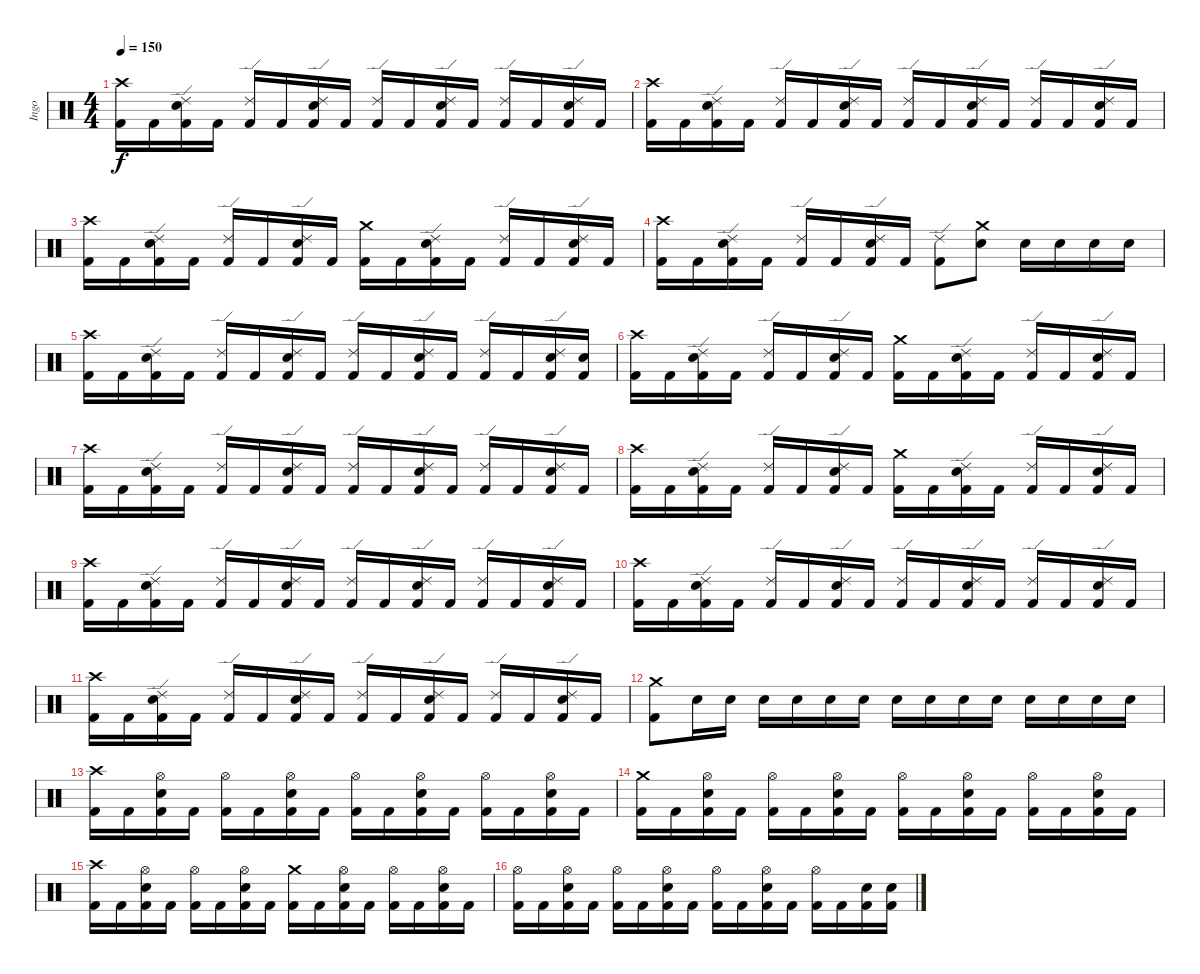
\track ("Ingo" "Ingo") {instrument percussion}
\staff {score}
\articulation defaults
\ts (4 4)
\tempo 150
\clef neutral
\ks c
("Crash high (hit)" "Kick (hit) 2").16{dy f} "Kick (hit) 2".16 ("Ride (edge) 2" "Electric Snare (hit)" "Kick (hit) 2").16 "Kick (hit) 2".16 ("Ride (edge) 2" "Kick (hit) 2").16 "Kick (hit) 2".16 ("Ride (edge) 2" "Electric Snare (hit)" "Kick (hit) 2").16 "Kick (hit) 2".16 ("Ride (edge) 2" "Kick (hit) 2").16 "Kick (hit) 2".16 ("Ride (edge) 2" "Electric Snare (hit)" "Kick (hit) 2").16 "Kick (hit) 2".16 ("Ride (edge) 2" "Kick (hit) 2").16 "Kick (hit) 2".16 ("Ride (edge) 2" "Electric Snare (hit)" "Kick (hit) 2").16 "Kick (hit) 2".16 |
("Crash high (hit)" "Kick (hit) 2").16 "Kick (hit) 2".16 ("Ride (edge) 2" "Electric Snare (hit)" "Kick (hit) 2").16 "Kick (hit) 2".16 ("Ride (edge) 2" "Kick (hit) 2").16 "Kick (hit) 2".16 ("Ride (edge) 2" "Electric Snare (hit)" "Kick (hit) 2").16 "Kick (hit) 2".16 ("Ride (edge) 2" "Kick (hit) 2").16 "Kick (hit) 2".16 ("Ride (edge) 2" "Electric Snare (hit)" "Kick (hit) 2").16 "Kick (hit) 2".16 ("Ride (edge) 2" "Kick (hit) 2").16 "Kick (hit) 2".16 ("Ride (edge) 2" "Electric Snare (hit)" "Kick (hit) 2").16 "Kick (hit) 2".16 |
("Crash high (hit)" "Kick (hit) 2").16 "Kick (hit) 2".16 ("Ride (edge) 2" "Electric Snare (hit)" "Kick (hit) 2").16 "Kick (hit) 2".16 ("Ride (edge) 2" "Kick (hit) 2").16 "Kick (hit) 2".16 ("Ride (edge) 2" "Electric Snare (hit)" "Kick (hit) 2").16 "Kick (hit) 2".16 ("Crash medium (hit)" "Kick (hit) 2").16 "Kick (hit) 2".16 ("Ride (edge) 2" "Electric Snare (hit)" "Kick (hit) 2").16 "Kick (hit) 2".16 ("Ride (edge) 2" "Kick (hit) 2").16 "Kick (hit) 2".16 ("Ride (edge) 2" "Electric Snare (hit)" "Kick (hit) 2").16 "Kick (hit) 2".16 |
("Crash high (hit)" "Kick (hit) 2").16 "Kick (hit) 2".16 ("Ride (edge) 2" "Electric Snare (hit)" "Kick (hit) 2").16 "Kick (hit) 2".16 ("Ride (edge) 2" "Kick (hit) 2").16 "Kick (hit) 2".16 ("Ride (edge) 2" "Electric Snare (hit)" "Kick (hit) 2").16 "Kick (hit) 2".16 ("Ride (edge) 2" "Kick (hit) 2").8 ("Crash medium (hit)" "Electric Snare (hit)").8 "Electric Snare (hit)".16 "Electric Snare (hit)".16 "Electric Snare (hit)".16 "Electric Snare (hit)".16 |
("Crash high (hit)" "Kick (hit) 2").16 "Kick (hit) 2".16 ("Ride (edge) 2" "Electric Snare (hit)" "Kick (hit) 2").16 "Kick (hit) 2".16 ("Ride (edge) 2" "Kick (hit) 2").16 "Kick (hit) 2".16 ("Ride (edge) 2" "Electric Snare (hit)" "Kick (hit) 2").16 "Kick (hit) 2".16 ("Ride (edge) 2" "Kick (hit) 2").16 "Kick (hit) 2".16 ("Ride (edge) 2" "Electric Snare (hit)" "Kick (hit) 2").16 "Kick (hit) 2".16 ("Ride (edge) 2" "Kick (hit) 2").16 "Kick (hit) 2".16 ("Ride (edge) 2" "Electric Snare (hit)" "Kick (hit) 2").16 ("Electric Snare (hit)" "Kick (hit) 2").16 |
("Crash high (hit)" "Kick (hit) 2").16 "Kick (hit) 2".16 ("Ride (edge) 2" "Electric Snare (hit)" "Kick (hit) 2").16 "Kick (hit) 2".16 ("Ride (edge) 2" "Kick (hit) 2").16 "Kick (hit) 2".16 ("Ride (edge) 2" "Electric Snare (hit)" "Kick (hit) 2").16 "Kick (hit) 2".16 ("Crash medium (hit)" "Kick (hit) 2").16 "Kick (hit) 2".16 ("Ride (edge) 2" "Electric Snare (hit)" "Kick (hit) 2").16 "Kick (hit) 2".16 ("Ride (edge) 2" "Kick (hit) 2").16 "Kick (hit) 2".16 ("Ride (edge) 2" "Electric Snare (hit)" "Kick (hit) 2").16 "Kick (hit) 2".16 |
("Crash high (hit)" "Kick (hit) 2").16 "Kick (hit) 2".16 ("Ride (edge) 2" "Electric Snare (hit)" "Kick (hit) 2").16 "Kick (hit) 2".16 ("Ride (edge) 2" "Kick (hit) 2").16 "Kick (hit) 2".16 ("Ride (edge) 2" "Electric Snare (hit)" "Kick (hit) 2").16 "Kick (hit) 2".16 ("Ride (edge) 2" "Kick (hit) 2").16 "Kick (hit) 2".16 ("Ride (edge) 2" "Electric Snare (hit)" "Kick (hit) 2").16 "Kick (hit) 2".16 ("Ride (edge) 2" "Kick (hit) 2").16 "Kick (hit) 2".16 ("Ride (edge) 2" "Electric Snare (hit)" "Kick (hit) 2").16 "Kick (hit) 2".16 |
("Crash high (hit)" "Kick (hit) 2").16 "Kick (hit) 2".16 ("Ride (edge) 2" "Electric Snare (hit)" "Kick (hit) 2").16 "Kick (hit) 2".16 ("Ride (edge) 2" "Kick (hit) 2").16 "Kick (hit) 2".16 ("Ride (edge) 2" "Electric Snare (hit)" "Kick (hit) 2").16 "Kick (hit) 2".16 ("Crash medium (hit)" "Kick (hit) 2").16 "Kick (hit) 2".16 ("Ride (edge) 2" "Electric Snare (hit)" "Kick (hit) 2").16 "Kick (hit) 2".16 ("Ride (edge) 2" "Kick (hit) 2").16 "Kick (hit) 2".16 ("Ride (edge) 2" "Electric Snare (hit)" "Kick (hit) 2").16 "Kick (hit) 2".16 |
("Crash high (hit)" "Kick (hit) 2").16 "Kick (hit) 2".16 ("Ride (edge) 2" "Electric Snare (hit)" "Kick (hit) 2").16 "Kick (hit) 2".16 ("Ride (edge) 2" "Kick (hit) 2").16 "Kick (hit) 2".16 ("Ride (edge) 2" "Electric Snare (hit)" "Kick (hit) 2").16 "Kick (hit) 2".16 ("Ride (edge) 2" "Kick (hit) 2").16 "Kick (hit) 2".16 ("Ride (edge) 2" "Electric Snare (hit)" "Kick (hit) 2").16 "Kick (hit) 2".16 ("Ride (edge) 2" "Kick (hit) 2").16 "Kick (hit) 2".16 ("Ride (edge) 2" "Electric Snare (hit)" "Kick (hit) 2").16 "Kick (hit) 2".16 |
("Crash high (hit)" "Kick (hit) 2").16 "Kick (hit) 2".16 ("Ride (edge) 2" "Electric Snare (hit)" "Kick (hit) 2").16 "Kick (hit) 2".16 ("Ride (edge) 2" "Kick (hit) 2").16 "Kick (hit) 2".16 ("Ride (edge) 2" "Electric Snare (hit)" "Kick (hit) 2").16 "Kick (hit) 2".16 ("Ride (edge) 2" "Kick (hit) 2").16 "Kick (hit) 2".16 ("Ride (edge) 2" "Electric Snare (hit)" "Kick (hit) 2").16 "Kick (hit) 2".16 ("Ride (edge) 2" "Kick (hit) 2").16 "Kick (hit) 2".16 ("Ride (edge) 2" "Electric Snare (hit)" "Kick (hit) 2").16 "Kick (hit) 2".16 |
("Crash high (hit)" "Kick (hit) 2").16 "Kick (hit) 2".16 ("Ride (edge) 2" "Electric Snare (hit)" "Kick (hit) 2").16 "Kick (hit) 2".16 ("Ride (edge) 2" "Kick (hit) 2").16 "Kick (hit) 2".16 ("Ride (edge) 2" "Electric Snare (hit)" "Kick (hit) 2").16 "Kick (hit) 2".16 ("Ride (edge) 2" "Kick (hit) 2").16 "Kick (hit) 2".16 ("Ride (edge) 2" "Electric Snare (hit)" "Kick (hit) 2").16 "Kick (hit) 2".16 ("Ride (edge) 2" "Kick (hit) 2").16 "Kick (hit) 2".16 ("Ride (edge) 2" "Electric Snare (hit)" "Kick (hit) 2").16 "Kick (hit) 2".16 |
("Crash medium (hit)" "Kick (hit) 2").8 "Electric Snare (hit)".16 "Electric Snare (hit)".16 "Electric Snare (hit)".16 "Electric Snare (hit)".16 "Electric Snare (hit)".16 "Electric Snare (hit)".16 "Electric Snare (hit)".16 "Electric Snare (hit)".16 "Electric Snare (hit)".16 "Electric Snare (hit)".16 "Electric Snare (hit)".16 "Electric Snare (hit)".16 "Electric Snare (hit)".16 "Electric Snare (hit)".16 |
("Crash high (hit)" "Kick (hit) 2").16 "Kick (hit) 2".16 ("Hi-Hat (open)" "Electric Snare (hit)" "Kick (hit) 2").16 "Kick (hit) 2".16 ("Hi-Hat (open)" "Kick (hit) 2").16 "Kick (hit) 2".16 ("Hi-Hat (open)" "Electric Snare (hit)" "Kick (hit) 2").16 "Kick (hit) 2".16 ("Hi-Hat (open)" "Kick (hit) 2").16 "Kick (hit) 2".16 ("Hi-Hat (open)" "Electric Snare (hit)" "Kick (hit) 2").16 "Kick (hit) 2".16 ("Hi-Hat (open)" "Kick (hit) 2").16 "Kick (hit) 2".16 ("Hi-Hat (open)" "Electric Snare (hit)" "Kick (hit) 2").16 "Kick (hit) 2".16 |
("Crash medium (hit)" "Kick (hit) 2").16 "Kick (hit) 2".16 ("Hi-Hat (open)" "Electric Snare (hit)" "Kick (hit) 2").16 "Kick (hit) 2".16 ("Hi-Hat (open)" "Kick (hit) 2").16 "Kick (hit) 2".16 ("Hi-Hat (open)" "Electric Snare (hit)" "Kick (hit) 2").16 "Kick (hit) 2".16 ("Hi-Hat (open)" "Kick (hit) 2").16 "Kick (hit) 2".16 ("Hi-Hat (open)" "Electric Snare (hit)" "Kick (hit) 2").16 "Kick (hit) 2".16 ("Hi-Hat (open)" "Kick (hit) 2").16 "Kick (hit) 2".16 ("Hi-Hat (open)" "Electric Snare (hit)" "Kick (hit) 2").16 "Kick (hit) 2".16 |
("Crash high (hit)" "Kick (hit) 2").16 "Kick (hit) 2".16 ("Hi-Hat (open)" "Electric Snare (hit)" "Kick (hit) 2").16 "Kick (hit) 2".16 ("Hi-Hat (open)" "Kick (hit) 2").16 "Kick (hit) 2".16 ("Hi-Hat (open)" "Electric Snare (hit)" "Kick (hit) 2").16 "Kick (hit) 2".16 ("Crash medium (hit)" "Kick (hit) 2").16 "Kick (hit) 2".16 ("Hi-Hat (open)" "Electric Snare (hit)" "Kick (hit) 2").16 "Kick (hit) 2".16 ("Hi-Hat (open)" "Kick (hit) 2").16 "Kick (hit) 2".16 ("Hi-Hat (open)" "Electric Snare (hit)" "Kick (hit) 2").16 "Kick (hit) 2".16 |
("Hi-Hat (open)" "Kick (hit) 2").16 "Kick (hit) 2".16 ("Hi-Hat (open)" "Electric Snare (hit)" "Kick (hit) 2").16 "Kick (hit) 2".16 ("Hi-Hat (open)" "Kick (hit) 2").16 "Kick (hit) 2".16 ("Hi-Hat (open)" "Electric Snare (hit)" "Kick (hit) 2").16 "Kick (hit) 2".16 ("Hi-Hat (open)" "Kick (hit) 2").16 "Kick (hit) 2".16 ("Hi-Hat (open)" "Electric Snare (hit)" "Kick (hit) 2").16 "Kick (hit) 2".16 ("Hi-Hat (open)" "Kick (hit) 2").16 "Kick (hit) 2".16 ("Electric Snare (hit)" "Kick (hit) 2").16 ("Electric Snare (hit)" "Kick (hit) 2").16
